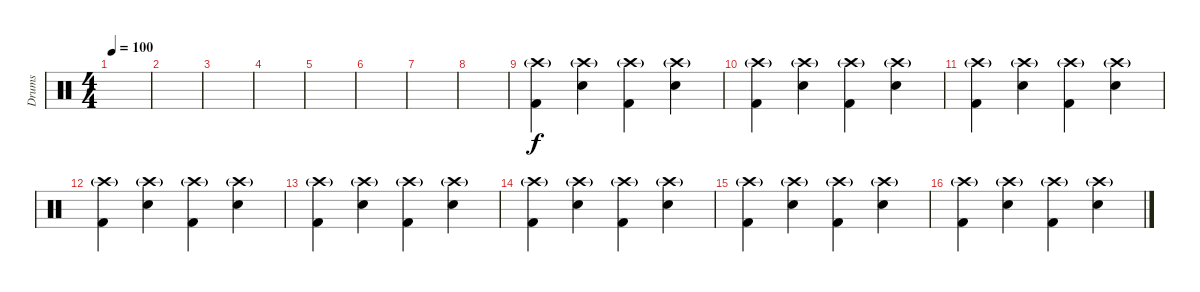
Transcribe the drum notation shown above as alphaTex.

\track ("Drums" "Drums") {instrument percussion}
\staff {score}
\articulation defaults
\ts (4 4)
\tempo 100
\clef neutral
\ks c
|
|
|
|
|
|
|
|
("Crash high (hit)"{g} "Kick (hit) 2").4 ("Crash high (hit)"{g} "Electric Snare (hit)").4 ("Crash high (hit)"{g} "Kick (hit) 2").4 ("Crash high (hit)"{g} "Electric Snare (hit)").4 |
("Crash high (hit)"{g} "Kick (hit) 2").4 ("Crash high (hit)"{g} "Electric Snare (hit)").4 ("Crash high (hit)"{g} "Kick (hit) 2").4 ("Crash high (hit)"{g} "Electric Snare (hit)").4 |
("Crash high (hit)"{g} "Kick (hit) 2").4 ("Crash high (hit)"{g} "Electric Snare (hit)").4 ("Crash high (hit)"{g} "Kick (hit) 2").4 ("Crash high (hit)"{g} "Electric Snare (hit)").4 |
("Crash high (hit)"{g} "Kick (hit) 2").4 ("Crash high (hit)"{g} "Electric Snare (hit)").4 ("Crash high (hit)"{g} "Kick (hit) 2").4 ("Crash high (hit)"{g} "Electric Snare (hit)").4 |
("Crash high (hit)"{g} "Kick (hit) 2").4 ("Crash high (hit)"{g} "Electric Snare (hit)").4 ("Crash high (hit)"{g} "Kick (hit) 2").4 ("Crash high (hit)"{g} "Electric Snare (hit)").4 |
("Crash high (hit)"{g} "Kick (hit) 2").4 ("Crash high (hit)"{g} "Electric Snare (hit)").4 ("Crash high (hit)"{g} "Kick (hit) 2").4 ("Crash high (hit)"{g} "Electric Snare (hit)").4 |
("Crash high (hit)"{g} "Kick (hit) 2").4 ("Crash high (hit)"{g} "Electric Snare (hit)").4 ("Crash high (hit)"{g} "Kick (hit) 2").4 ("Crash high (hit)"{g} "Electric Snare (hit)").4 |
("Crash high (hit)"{g} "Kick (hit) 2").4 ("Crash high (hit)"{g} "Electric Snare (hit)").4 ("Crash high (hit)"{g} "Kick (hit) 2").4 ("Crash high (hit)"{g} "Electric Snare (hit)").4
